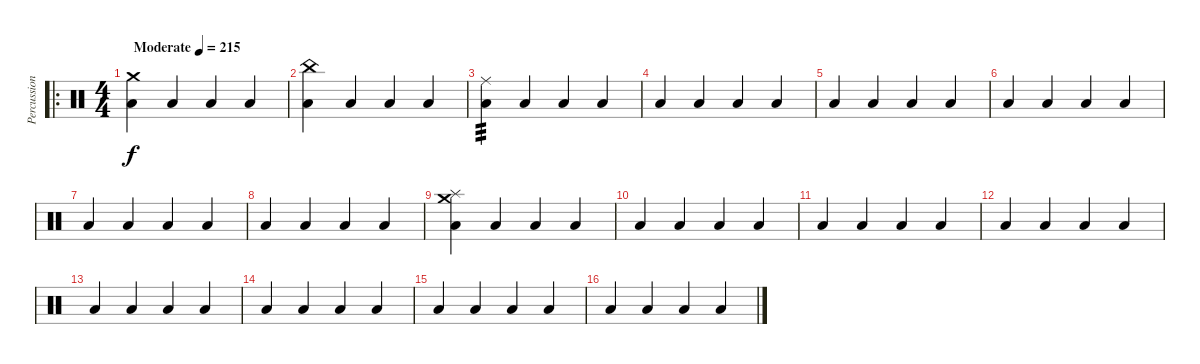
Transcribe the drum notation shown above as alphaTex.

\track ("Percussion" "Percussion") {instrument percussion}
\staff {score}
\articulation defaults
\ro
\ts (4 4)
\tempo (215 "Moderate")
\tempo 195
\tempo (215 "Moderate")
\clef neutral
\ks c
("Crash medium (hit)" "Low Tom (hit)").4{dy f} "Low Tom (hit)".4 "Low Tom (hit)".4 "Low Tom (hit)".4 |
("China (hit)" "Low Tom (hit)").4 "Low Tom (hit)".4 "Low Tom (hit)".4 "Low Tom (hit)".4 |
("Ride (middle)" "Low Tom (hit)").4{tp 3} "Low Tom (hit)".4 "Low Tom (hit)".4 "Low Tom (hit)".4 |
"Low Tom (hit)".4 "Low Tom (hit)".4 "Low Tom (hit)".4 "Low Tom (hit)".4 |
"Low Tom (hit)".4 "Low Tom (hit)".4 "Low Tom (hit)".4 "Low Tom (hit)".4 |
"Low Tom (hit)".4 "Low Tom (hit)".4 "Low Tom (hit)".4 "Low Tom (hit)".4 |
"Low Tom (hit)".4 "Low Tom (hit)".4 "Low Tom (hit)".4 "Low Tom (hit)".4 |
"Low Tom (hit)".4 "Low Tom (hit)".4 "Low Tom (hit)".4 "Low Tom (hit)".4 |
("Crash medium (hit)" "Splash (hit)" "Low Tom (hit)").4 "Low Tom (hit)".4 "Low Tom (hit)".4 "Low Tom (hit)".4 |
"Low Tom (hit)".4 "Low Tom (hit)".4 "Low Tom (hit)".4 "Low Tom (hit)".4 |
"Low Tom (hit)".4 "Low Tom (hit)".4 "Low Tom (hit)".4 "Low Tom (hit)".4 |
"Low Tom (hit)".4 "Low Tom (hit)".4 "Low Tom (hit)".4 "Low Tom (hit)".4 |
"Low Tom (hit)".4 "Low Tom (hit)".4 "Low Tom (hit)".4 "Low Tom (hit)".4 |
"Low Tom (hit)".4 "Low Tom (hit)".4 "Low Tom (hit)".4 "Low Tom (hit)".4 |
"Low Tom (hit)".4 "Low Tom (hit)".4 "Low Tom (hit)".4 "Low Tom (hit)".4 |
"Low Tom (hit)".4 "Low Tom (hit)".4 "Low Tom (hit)".4 "Low Tom (hit)".4
